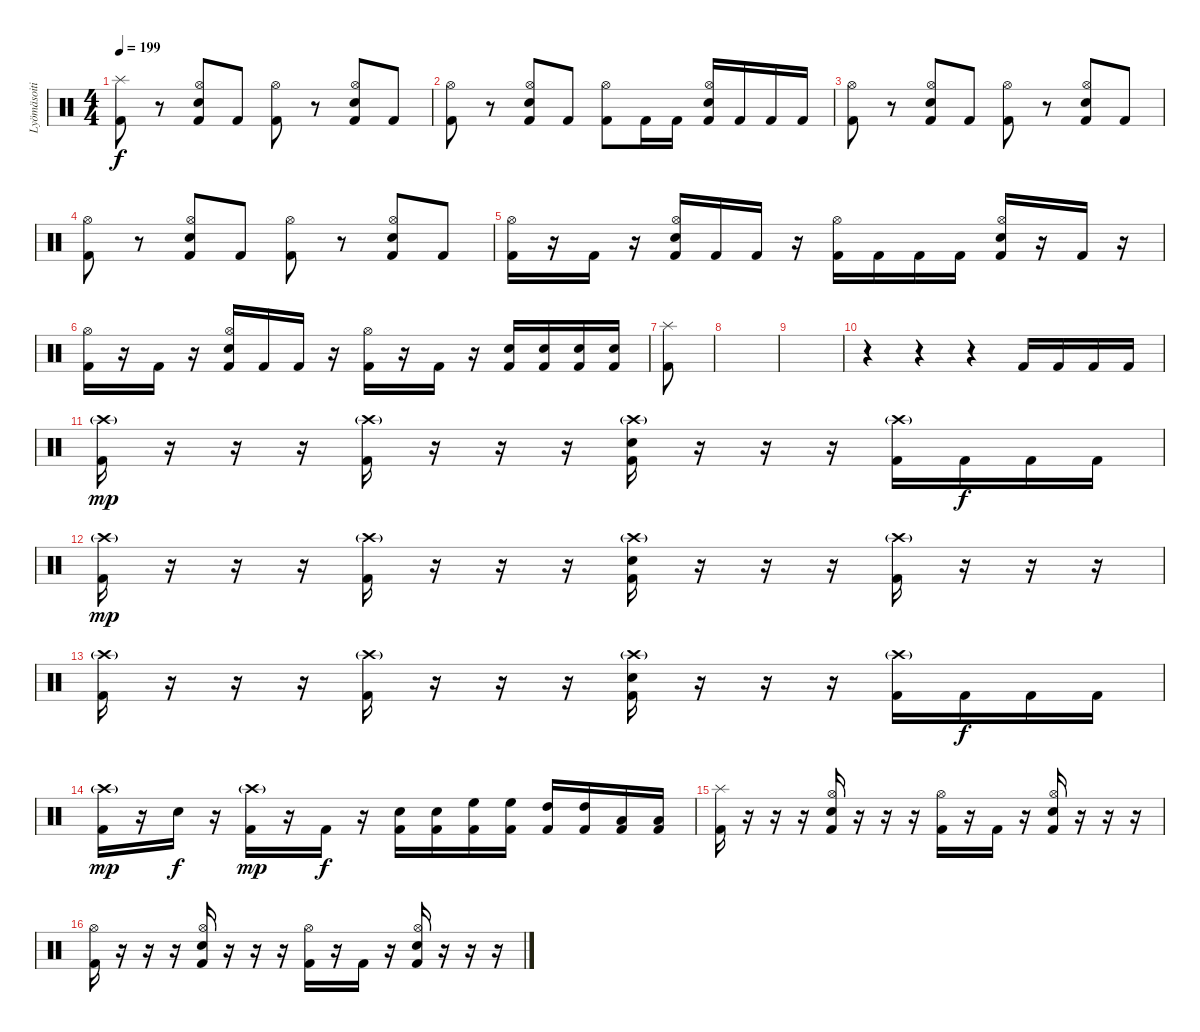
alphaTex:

\track ("Lyömäsoitin" "Lyömäsoiti") {instrument percussion}
\staff {score}
\articulation defaults
\ts (4 4)
\tempo 199
\clef neutral
\ks c
("Kick (hit) 2" "Splash (hit)").8{dy f} r.8 ("Kick (hit) 2" "Hi-Hat (open)" "Snare (hit) 2").8 "Kick (hit) 2".8 ("Kick (hit) 2" "Hi-Hat (open)").8 r.8 ("Kick (hit) 2" "Hi-Hat (open)" "Snare (hit) 2").8 "Kick (hit) 2".8 |
("Kick (hit) 2" "Hi-Hat (open)").8 r.8 ("Kick (hit) 2" "Hi-Hat (open)" "Snare (hit) 2").8 "Kick (hit) 2".8 ("Kick (hit) 2" "Hi-Hat (open)").8 "Kick (hit) 2".16 "Kick (hit) 2".16 ("Kick (hit) 2" "Hi-Hat (open)" "Snare (hit) 2").16 "Kick (hit) 2".16 "Kick (hit) 2".16 "Kick (hit) 2".16 |
("Kick (hit) 2" "Hi-Hat (open)").8 r.8 ("Kick (hit) 2" "Hi-Hat (open)" "Snare (hit) 2").8 "Kick (hit) 2".8 ("Kick (hit) 2" "Hi-Hat (open)").8 r.8 ("Kick (hit) 2" "Hi-Hat (open)" "Snare (hit) 2").8 "Kick (hit) 2".8 |
("Kick (hit) 2" "Hi-Hat (open)").8 r.8 ("Kick (hit) 2" "Hi-Hat (open)" "Snare (hit) 2").8 "Kick (hit) 2".8 ("Kick (hit) 2" "Hi-Hat (open)").8 r.8 ("Kick (hit) 2" "Hi-Hat (open)" "Snare (hit) 2").8 "Kick (hit) 2".8 |
("Kick (hit) 2" "Hi-Hat (open)").16 r.16 "Kick (hit) 2".16 r.16 ("Kick (hit) 2" "Snare (hit) 2" "Hi-Hat (open)").16 "Kick (hit) 2".16 "Kick (hit) 2".16 r.16 ("Kick (hit) 2" "Hi-Hat (open)").16 "Kick (hit) 2".16 "Kick (hit) 2".16 "Kick (hit) 2".16 ("Kick (hit) 2" "Snare (hit) 2" "Hi-Hat (open)").16 r.16 "Kick (hit) 2".16 r.16 |
("Kick (hit) 2" "Hi-Hat (open)").16 r.16 "Kick (hit) 2".16 r.16 ("Kick (hit) 2" "Snare (hit) 2" "Hi-Hat (open)").16 "Kick (hit) 2".16 "Kick (hit) 2".16 r.16 ("Kick (hit) 2" "Hi-Hat (open)").16 r.16 "Kick (hit) 2".16 r.16 ("Kick (hit) 2" "Snare (hit) 2").16 ("Kick (hit) 2" "Snare (hit) 2").16 ("Kick (hit) 2" "Snare (hit) 2").16 ("Kick (hit) 2" "Snare (hit) 2").16 |
("Kick (hit) 2" "Splash (hit)").8 |
|
|
r.4 r.4 r.4 "Kick (hit) 2".16 "Kick (hit) 2".16 "Kick (hit) 2".16 "Kick (hit) 2".16 |
("Kick (hit) 2" "Crash high (hit)"{g}).16{dy mp} r.16 r.16 r.16 ("Kick (hit) 2" "Crash high (hit)"{g}).16 r.16 r.16 r.16 ("Kick (hit) 2" "Crash high (hit)"{g} "Snare (hit) 2").16 r.16 r.16 r.16 ("Kick (hit) 2" "Crash high (hit)"{g}).16 "Kick (hit) 2".16{dy f} "Kick (hit) 2".16 "Kick (hit) 2".16 |
("Kick (hit) 2" "Crash high (hit)"{g}).16{dy mp} r.16 r.16 r.16 ("Kick (hit) 2" "Crash high (hit)"{g}).16 r.16 r.16 r.16 ("Kick (hit) 2" "Crash high (hit)"{g} "Snare (hit) 2").16 r.16 r.16 r.16 ("Kick (hit) 2" "Crash high (hit)"{g}).16 r.16 r.16 r.16 |
("Kick (hit) 2" "Crash high (hit)"{g}).16 r.16 r.16 r.16 ("Kick (hit) 2" "Crash high (hit)"{g}).16 r.16 r.16 r.16 ("Kick (hit) 2" "Crash high (hit)"{g} "Snare (hit) 2").16 r.16 r.16 r.16 ("Kick (hit) 2" "Crash high (hit)"{g}).16 "Kick (hit) 2".16{dy f} "Kick (hit) 2".16 "Kick (hit) 2".16 |
("Kick (hit) 2" "Crash high (hit)"{g}).16{dy mp} r.16 "Snare (hit) 2".16{dy f} r.16 ("Kick (hit) 2" "Crash high (hit)"{g}).16{dy mp} r.16 "Kick (hit) 2".16{dy f} r.16 ("Kick (hit) 2" "Snare (hit) 2").16 ("Kick (hit) 2" "Snare (hit) 2").16 ("Kick (hit) 2" "High Floor Tom (hit)").16 ("Kick (hit) 2" "High Floor Tom (hit)").16 ("Kick (hit) 2" "High Tom (hit)").16 ("Kick (hit) 2" "High Tom (hit)").16 ("Kick (hit) 2" "Low Tom (hit)").16 ("Kick (hit) 2" "Low Tom (hit)").16 |
("Kick (hit) 2" "Splash (hit)").16 r.16 r.16 r.16 ("Kick (hit) 2" "Hi-Hat (open)" "Snare (hit) 2").16 r.16 r.16 r.16 ("Kick (hit) 2" "Hi-Hat (open)").16 r.16 "Kick (hit) 2".16 r.16 ("Kick (hit) 2" "Hi-Hat (open)" "Snare (hit) 2").16 r.16 r.16 r.16 |
("Kick (hit) 2" "Hi-Hat (open)").16 r.16 r.16 r.16 ("Kick (hit) 2" "Hi-Hat (open)" "Snare (hit) 2").16 r.16 r.16 r.16 ("Kick (hit) 2" "Hi-Hat (open)").16 r.16 "Kick (hit) 2".16 r.16 ("Kick (hit) 2" "Hi-Hat (open)" "Snare (hit) 2").16 r.16 r.16 r.16
